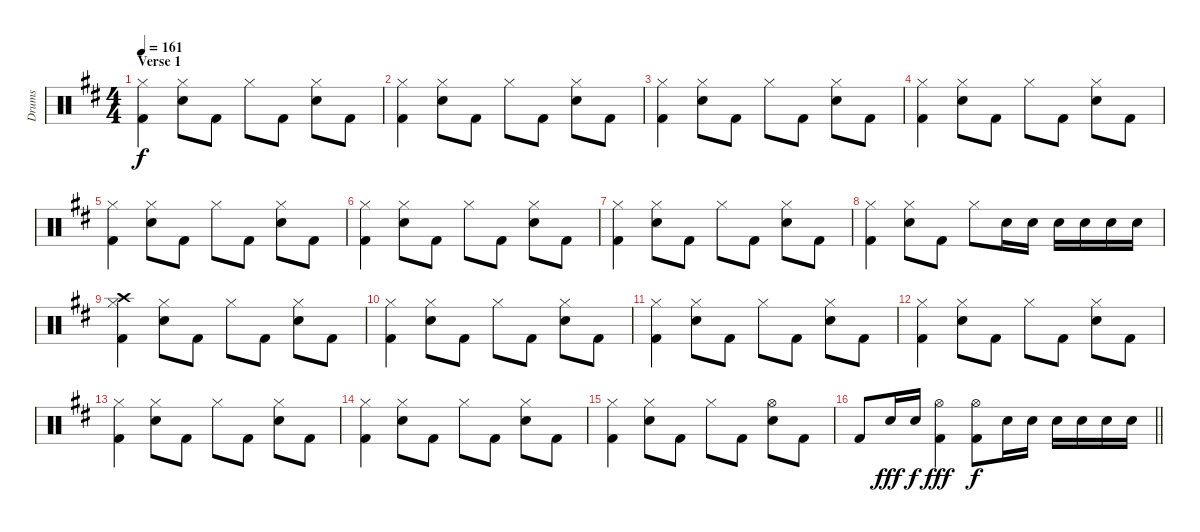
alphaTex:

\track ("Drums" "Drums") {instrument percussion}
\staff {score}
\articulation defaults
\ts (4 4)
\section ("" "Verse 1")
\tempo 161
\clef neutral
\ks d
("Hi-Hat (closed)" "Kick (hit) 2").4{dy f} ("Hi-Hat (closed)" "Electric Snare (hit)").8 "Kick (hit) 2".8 "Hi-Hat (closed)".8 "Kick (hit) 2".8 ("Hi-Hat (closed)" "Electric Snare (hit)").8 "Kick (hit) 2".8 |
("Hi-Hat (closed)" "Kick (hit) 2").4 ("Hi-Hat (closed)" "Electric Snare (hit)").8 "Kick (hit) 2".8 "Hi-Hat (closed)".8 "Kick (hit) 2".8 ("Hi-Hat (closed)" "Electric Snare (hit)").8 "Kick (hit) 2".8 |
("Hi-Hat (closed)" "Kick (hit) 2").4 ("Hi-Hat (closed)" "Electric Snare (hit)").8 "Kick (hit) 2".8 "Hi-Hat (closed)".8 "Kick (hit) 2".8 ("Hi-Hat (closed)" "Electric Snare (hit)").8 "Kick (hit) 2".8 |
("Hi-Hat (closed)" "Kick (hit) 2").4 ("Hi-Hat (closed)" "Electric Snare (hit)").8 "Kick (hit) 2".8 "Hi-Hat (closed)".8 "Kick (hit) 2".8 ("Hi-Hat (closed)" "Electric Snare (hit)").8 "Kick (hit) 2".8 |
("Hi-Hat (closed)" "Kick (hit) 2").4 ("Hi-Hat (closed)" "Electric Snare (hit)").8 "Kick (hit) 2".8 "Hi-Hat (closed)".8 "Kick (hit) 2".8 ("Hi-Hat (closed)" "Electric Snare (hit)").8 "Kick (hit) 2".8 |
("Hi-Hat (closed)" "Kick (hit) 2").4 ("Hi-Hat (closed)" "Electric Snare (hit)").8 "Kick (hit) 2".8 "Hi-Hat (closed)".8 "Kick (hit) 2".8 ("Hi-Hat (closed)" "Electric Snare (hit)").8 "Kick (hit) 2".8 |
("Hi-Hat (closed)" "Kick (hit) 2").4 ("Hi-Hat (closed)" "Electric Snare (hit)").8 "Kick (hit) 2".8 "Hi-Hat (closed)".8 "Kick (hit) 2".8 ("Hi-Hat (closed)" "Electric Snare (hit)").8 "Kick (hit) 2".8 |
("Hi-Hat (closed)" "Kick (hit) 2").4 ("Hi-Hat (closed)" "Electric Snare (hit)").8 "Kick (hit) 2".8 "Hi-Hat (closed)".8 "Electric Snare (hit)".16 "Electric Snare (hit)".16 "Electric Snare (hit)".16 "Electric Snare (hit)".16 "Electric Snare (hit)".16 "Electric Snare (hit)".16 |
("Hi-Hat (closed)" "Crash high (hit)" "Kick (hit) 2").4 ("Hi-Hat (closed)" "Electric Snare (hit)").8 "Kick (hit) 2".8 "Hi-Hat (closed)".8 "Kick (hit) 2".8 ("Hi-Hat (closed)" "Electric Snare (hit)").8 "Kick (hit) 2".8 |
("Hi-Hat (closed)" "Kick (hit) 2").4 ("Hi-Hat (closed)" "Electric Snare (hit)").8 "Kick (hit) 2".8 "Hi-Hat (closed)".8 "Kick (hit) 2".8 ("Hi-Hat (closed)" "Electric Snare (hit)").8 "Kick (hit) 2".8 |
("Hi-Hat (closed)" "Kick (hit) 2").4 ("Hi-Hat (closed)" "Electric Snare (hit)").8 "Kick (hit) 2".8 "Hi-Hat (closed)".8 "Kick (hit) 2".8 ("Hi-Hat (closed)" "Electric Snare (hit)").8 "Kick (hit) 2".8 |
("Hi-Hat (closed)" "Kick (hit) 2").4 ("Hi-Hat (closed)" "Electric Snare (hit)").8 "Kick (hit) 2".8 "Hi-Hat (closed)".8 "Kick (hit) 2".8 ("Hi-Hat (closed)" "Electric Snare (hit)").8 "Kick (hit) 2".8 |
("Hi-Hat (closed)" "Kick (hit) 2").4 ("Hi-Hat (closed)" "Electric Snare (hit)").8 "Kick (hit) 2".8 "Hi-Hat (closed)".8 "Kick (hit) 2".8 ("Hi-Hat (closed)" "Electric Snare (hit)").8 "Kick (hit) 2".8 |
("Hi-Hat (closed)" "Kick (hit) 2").4 ("Hi-Hat (closed)" "Electric Snare (hit)").8 "Kick (hit) 2".8 "Hi-Hat (closed)".8 "Kick (hit) 2".8 ("Hi-Hat (closed)" "Electric Snare (hit)").8 "Kick (hit) 2".8 |
("Hi-Hat (closed)" "Kick (hit) 2").4 ("Hi-Hat (closed)" "Electric Snare (hit)").8 "Kick (hit) 2".8 "Hi-Hat (closed)".8 "Kick (hit) 2".8 ("Hi-Hat (open)" "Electric Snare (hit)").8 "Kick (hit) 2".8 |
\barLineRight lightlight "Kick (hit) 2".8 "Electric Snare (hit)".16{dy fff} "Electric Snare (hit)".16{dy f}
("Hi-Hat (open)" "Kick (hit) 2").4{dy fff} ("Hi-Hat (open)" "Kick (hit) 2").8{dy f} "Electric Snare (hit)".16 "Electric Snare (hit)".16 "Electric Snare (hit)".16 "Electric Snare (hit)".16 "Electric Snare (hit)".16 "Electric Snare (hit)".16
